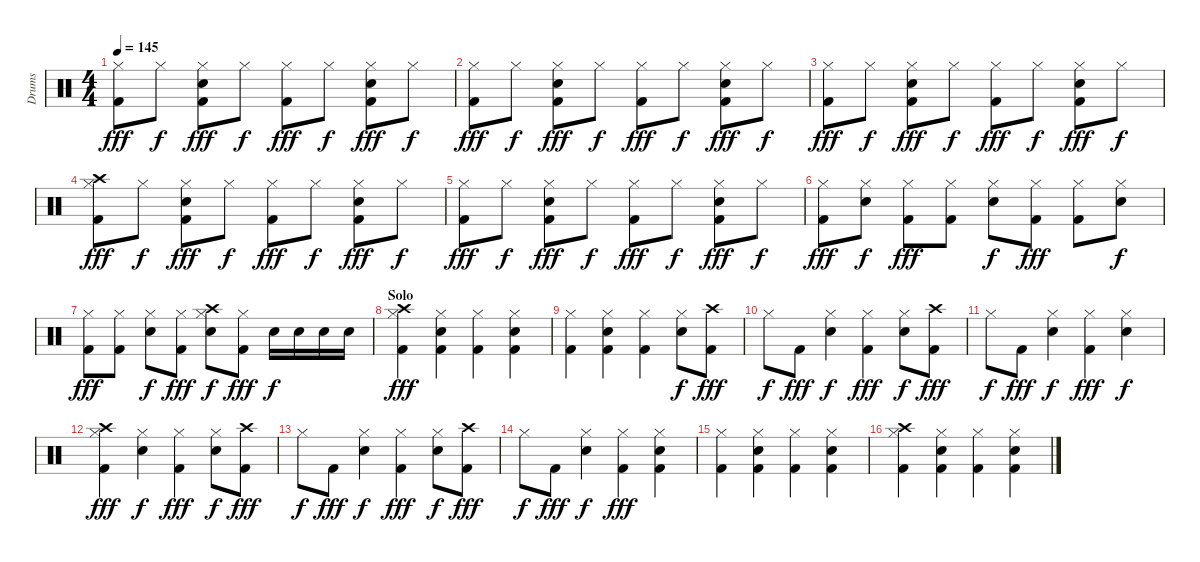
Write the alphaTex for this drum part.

\track ("Drums" "Drums") {instrument percussion}
\staff {score}
\articulation defaults
\ts (4 4)
\tempo 145
\clef neutral
\ks c
("Hi-Hat (closed)" "Kick (hit) 2").8{dy fff} "Hi-Hat (closed)".8{dy f} ("Hi-Hat (closed)" "Electric Snare (hit)" "Kick (hit) 2").8{dy fff} "Hi-Hat (closed)".8{dy f} ("Hi-Hat (closed)" "Kick (hit) 2").8{dy fff} "Hi-Hat (closed)".8{dy f} ("Hi-Hat (closed)" "Electric Snare (hit)" "Kick (hit) 2").8{dy fff} "Hi-Hat (closed)".8{dy f} |
("Hi-Hat (closed)" "Kick (hit) 2").8{dy fff} "Hi-Hat (closed)".8{dy f} ("Hi-Hat (closed)" "Electric Snare (hit)" "Kick (hit) 2").8{dy fff} "Hi-Hat (closed)".8{dy f} ("Hi-Hat (closed)" "Kick (hit) 2").8{dy fff} "Hi-Hat (closed)".8{dy f} ("Hi-Hat (closed)" "Electric Snare (hit)" "Kick (hit) 2").8{dy fff} "Hi-Hat (closed)".8{dy f} |
("Hi-Hat (closed)" "Kick (hit) 2").8{dy fff} "Hi-Hat (closed)".8{dy f} ("Hi-Hat (closed)" "Electric Snare (hit)" "Kick (hit) 2").8{dy fff} "Hi-Hat (closed)".8{dy f} ("Hi-Hat (closed)" "Kick (hit) 2").8{dy fff} "Hi-Hat (closed)".8{dy f} ("Hi-Hat (closed)" "Electric Snare (hit)" "Kick (hit) 2").8{dy fff} "Hi-Hat (closed)".8{dy f} |
("Crash high (hit)" "Hi-Hat (closed)" "Kick (hit) 2").8{dy fff} "Hi-Hat (closed)".8{dy f} ("Hi-Hat (closed)" "Electric Snare (hit)" "Kick (hit) 2").8{dy fff} "Hi-Hat (closed)".8{dy f} ("Hi-Hat (closed)" "Kick (hit) 2").8{dy fff} "Hi-Hat (closed)".8{dy f} ("Hi-Hat (closed)" "Electric Snare (hit)" "Kick (hit) 2").8{dy fff} "Hi-Hat (closed)".8{dy f} |
("Hi-Hat (closed)" "Kick (hit) 2").8{dy fff} "Hi-Hat (closed)".8{dy f} ("Hi-Hat (closed)" "Electric Snare (hit)" "Kick (hit) 2").8{dy fff} "Hi-Hat (closed)".8{dy f} ("Hi-Hat (closed)" "Kick (hit) 2").8{dy fff} "Hi-Hat (closed)".8{dy f} ("Hi-Hat (closed)" "Electric Snare (hit)" "Kick (hit) 2").8{dy fff} "Hi-Hat (closed)".8{dy f} |
("Hi-Hat (closed)" "Kick (hit) 2").8{dy fff} ("Hi-Hat (closed)" "Electric Snare (hit)").8{dy f} ("Hi-Hat (closed)" "Kick (hit) 2").8{dy fff} ("Hi-Hat (closed)" "Kick (hit) 2").8 ("Hi-Hat (closed)" "Electric Snare (hit)").8{dy f} ("Hi-Hat (closed)" "Kick (hit) 2").8{dy fff} ("Hi-Hat (closed)" "Kick (hit) 2").8 ("Hi-Hat (closed)" "Electric Snare (hit)").8{dy f} |
("Hi-Hat (closed)" "Kick (hit) 2").8{dy fff} ("Hi-Hat (closed)" "Kick (hit) 2").8 ("Hi-Hat (closed)" "Electric Snare (hit)").8{dy f} ("Hi-Hat (closed)" "Kick (hit) 2").8{dy fff} ("Crash high (hit)" "Hi-Hat (closed)" "Electric Snare (hit)").8{dy f} ("Hi-Hat (closed)" "Kick (hit) 2").8{dy fff} "Electric Snare (hit)".16{dy f} "Electric Snare (hit)".16 "Electric Snare (hit)".16 "Electric Snare (hit)".16 |
\section ("" "Solo")
("Crash high (hit)" "Hi-Hat (closed)" "Kick (hit) 2").4{dy fff} ("Hi-Hat (closed)" "Electric Snare (hit)" "Kick (hit) 2").4 ("Hi-Hat (closed)" "Kick (hit) 2").4 ("Hi-Hat (closed)" "Electric Snare (hit)" "Kick (hit) 2").4 |
("Hi-Hat (closed)" "Kick (hit) 2").4 ("Hi-Hat (closed)" "Electric Snare (hit)" "Kick (hit) 2").4 ("Hi-Hat (closed)" "Kick (hit) 2").4 ("Hi-Hat (closed)" "Electric Snare (hit)").8{dy f} ("Crash high (hit)" "Kick (hit) 2").8{dy fff} |
"Hi-Hat (closed)".8{dy f} "Kick (hit) 2".8{dy fff} ("Hi-Hat (closed)" "Electric Snare (hit)").4{dy f} ("Hi-Hat (closed)" "Kick (hit) 2").4{dy fff} ("Hi-Hat (closed)" "Electric Snare (hit)").8{dy f} ("Crash high (hit)" "Kick (hit) 2").8{dy fff} |
"Hi-Hat (closed)".8{dy f} "Kick (hit) 2".8{dy fff} ("Hi-Hat (closed)" "Electric Snare (hit)").4{dy f} ("Hi-Hat (closed)" "Kick (hit) 2").4{dy fff} ("Hi-Hat (closed)" "Electric Snare (hit)").4{dy f} |
("Crash high (hit)" "Hi-Hat (closed)" "Kick (hit) 2").4{dy fff} ("Hi-Hat (closed)" "Electric Snare (hit)").4{dy f} ("Hi-Hat (closed)" "Kick (hit) 2").4{dy fff} ("Hi-Hat (closed)" "Electric Snare (hit)").8{dy f} ("Crash high (hit)" "Kick (hit) 2").8{dy fff} |
"Hi-Hat (closed)".8{dy f} "Kick (hit) 2".8{dy fff} ("Hi-Hat (closed)" "Electric Snare (hit)").4{dy f} ("Hi-Hat (closed)" "Kick (hit) 2").4{dy fff} ("Hi-Hat (closed)" "Electric Snare (hit)").8{dy f} ("Crash high (hit)" "Kick (hit) 2").8{dy fff} |
"Hi-Hat (closed)".8{dy f} "Kick (hit) 2".8{dy fff} ("Hi-Hat (closed)" "Electric Snare (hit)").4{dy f} ("Hi-Hat (closed)" "Kick (hit) 2").4{dy fff} ("Electric Snare (hit)" "Hi-Hat (closed)" "Kick (hit) 2").4 |
("Hi-Hat (closed)" "Kick (hit) 2").4 ("Hi-Hat (closed)" "Electric Snare (hit)" "Kick (hit) 2").4 ("Hi-Hat (closed)" "Kick (hit) 2").4 ("Hi-Hat (closed)" "Electric Snare (hit)" "Kick (hit) 2").4 |
("Crash high (hit)" "Hi-Hat (closed)" "Kick (hit) 2").4 ("Hi-Hat (closed)" "Electric Snare (hit)" "Kick (hit) 2").4 ("Hi-Hat (closed)" "Kick (hit) 2").4 ("Hi-Hat (closed)" "Electric Snare (hit)" "Kick (hit) 2").4
